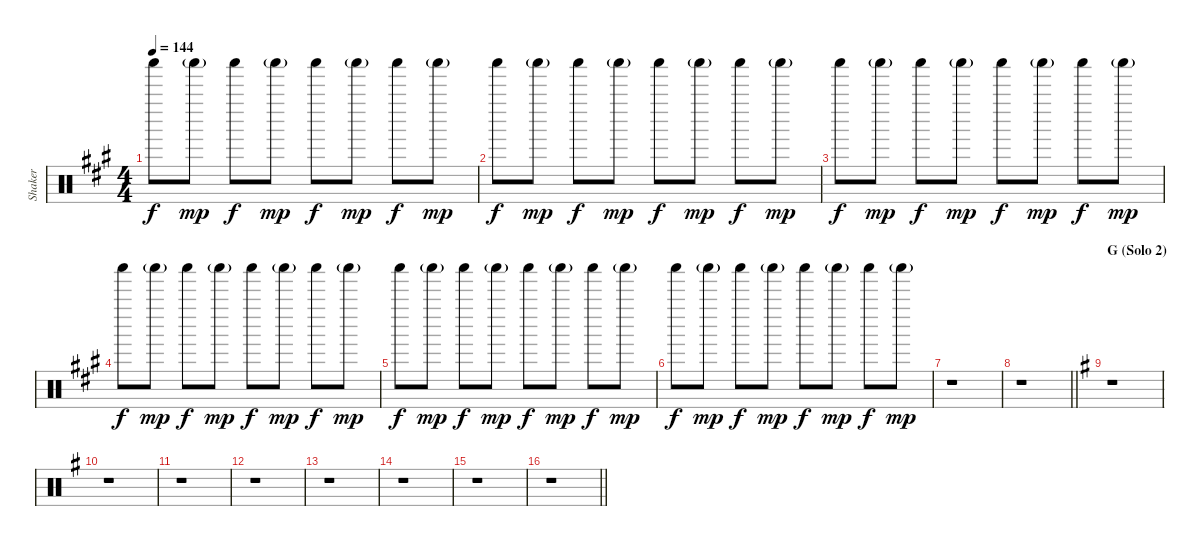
\track ("Shaker" "Shaker") {instrument percussion}
\staff {score}
\articulation defaults
\ts (4 4)
\tempo 144
\clef neutral
\ks a "Shaker (hit)".8{dy f} "Shaker (hit)"{g}.8{dy mp} "Shaker (hit)".8{dy f} "Shaker (hit)"{g}.8{dy mp} "Shaker (hit)".8{dy f} "Shaker (hit)"{g}.8{dy mp} "Shaker (hit)".8{dy f} "Shaker (hit)"{g}.8{dy mp}
|
"Shaker (hit)".8{dy f} "Shaker (hit)"{g}.8{dy mp} "Shaker (hit)".8{dy f} "Shaker (hit)"{g}.8{dy mp} "Shaker (hit)".8{dy f} "Shaker (hit)"{g}.8{dy mp} "Shaker (hit)".8{dy f} "Shaker (hit)"{g}.8{dy mp} |
"Shaker (hit)".8{dy f} "Shaker (hit)"{g}.8{dy mp} "Shaker (hit)".8{dy f} "Shaker (hit)"{g}.8{dy mp} "Shaker (hit)".8{dy f} "Shaker (hit)"{g}.8{dy mp} "Shaker (hit)".8{dy f} "Shaker (hit)"{g}.8{dy mp} |
"Shaker (hit)".8{dy f} "Shaker (hit)"{g}.8{dy mp} "Shaker (hit)".8{dy f} "Shaker (hit)"{g}.8{dy mp} "Shaker (hit)".8{dy f} "Shaker (hit)"{g}.8{dy mp} "Shaker (hit)".8{dy f} "Shaker (hit)"{g}.8{dy mp} |
"Shaker (hit)".8{dy f} "Shaker (hit)"{g}.8{dy mp} "Shaker (hit)".8{dy f} "Shaker (hit)"{g}.8{dy mp} "Shaker (hit)".8{dy f} "Shaker (hit)"{g}.8{dy mp} "Shaker (hit)".8{dy f} "Shaker (hit)"{g}.8{dy mp} |
"Shaker (hit)".8{dy f} "Shaker (hit)"{g}.8{dy mp} "Shaker (hit)".8{dy f} "Shaker (hit)"{g}.8{dy mp} "Shaker (hit)".8{dy f} "Shaker (hit)"{g}.8{dy mp} "Shaker (hit)".8{dy f} "Shaker (hit)"{g}.8{dy mp} |
r.1 |
\barLineRight lightlight
r.1 |
\section ("" "G (Solo 2)")
\ks g
r.1 |
r.1 |
r.1 |
r.1 |
r.1 |
r.1 |
r.1 |
\barLineRight lightlight
r.1
